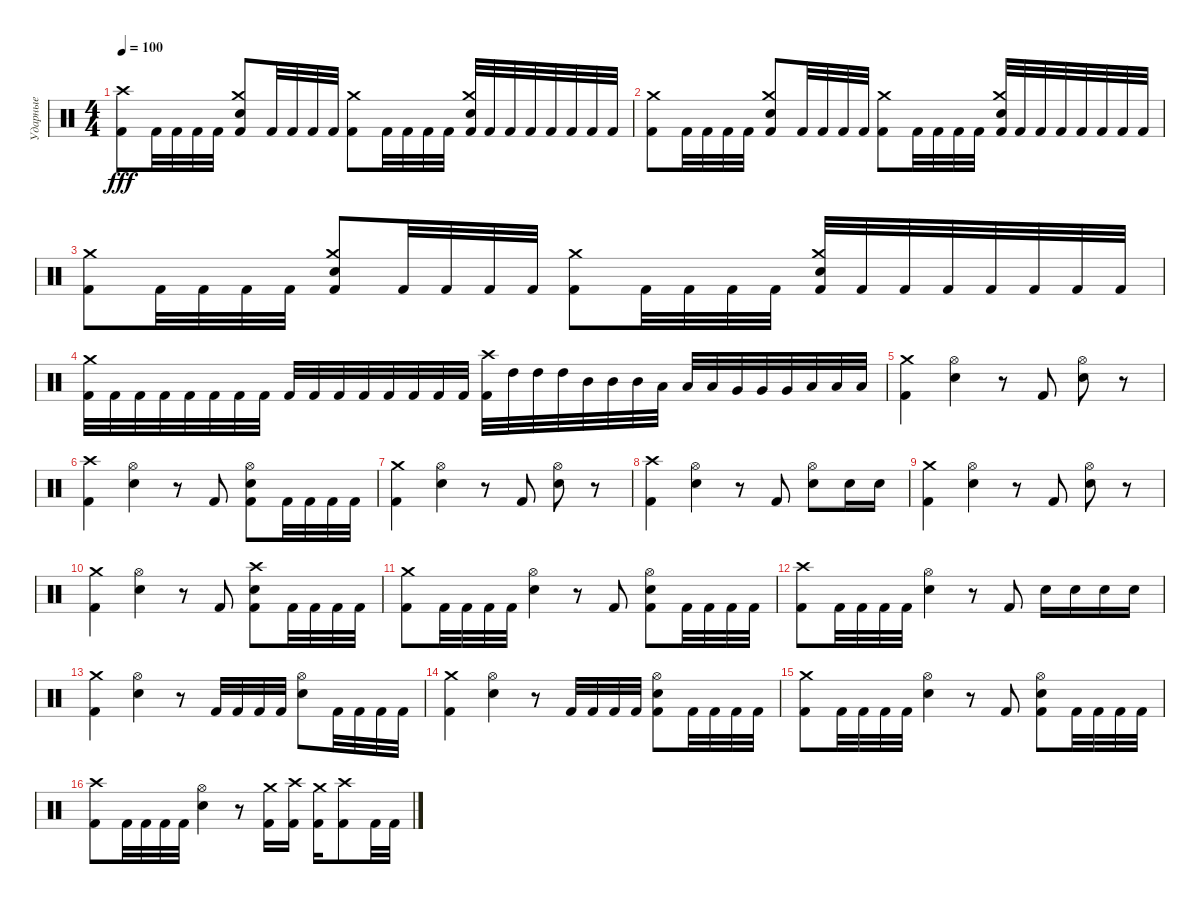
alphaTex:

\track ("Ударные" "Ударные") {instrument percussion}
\staff {score}
\articulation defaults
\ts (4 4)
\tempo 100
\clef neutral
\ks c
("Crash high (hit)" "Kick (hit) 2").8{dy fff} "Kick (hit) 2".32 "Kick (hit) 2".32 "Kick (hit) 2".32 "Kick (hit) 2".32 ("Crash medium (hit)" "Electric Snare (hit)" "Kick (hit) 2").8 "Kick (hit) 2".32 "Kick (hit) 2".32 "Kick (hit) 2".32 "Kick (hit) 2".32 ("Crash medium (hit)" "Kick (hit) 2").8 "Kick (hit) 2".32 "Kick (hit) 2".32 "Kick (hit) 2".32 "Kick (hit) 2".32 ("Crash medium (hit)" "Electric Snare (hit)" "Kick (hit) 2").32 "Kick (hit) 2".32 "Kick (hit) 2".32 "Kick (hit) 2".32 "Kick (hit) 2".32 "Kick (hit) 2".32 "Kick (hit) 2".32 "Kick (hit) 2".32 |
("Crash medium (hit)" "Kick (hit) 2").8 "Kick (hit) 2".32 "Kick (hit) 2".32 "Kick (hit) 2".32 "Kick (hit) 2".32 ("Crash medium (hit)" "Electric Snare (hit)" "Kick (hit) 2").8 "Kick (hit) 2".32 "Kick (hit) 2".32 "Kick (hit) 2".32 "Kick (hit) 2".32 ("Crash medium (hit)" "Kick (hit) 2").8 "Kick (hit) 2".32 "Kick (hit) 2".32 "Kick (hit) 2".32 "Kick (hit) 2".32 ("Crash medium (hit)" "Electric Snare (hit)" "Kick (hit) 2").32 "Kick (hit) 2".32 "Kick (hit) 2".32 "Kick (hit) 2".32 "Kick (hit) 2".32 "Kick (hit) 2".32 "Kick (hit) 2".32 "Kick (hit) 2".32 |
("Crash medium (hit)" "Kick (hit) 2").8 "Kick (hit) 2".32 "Kick (hit) 2".32 "Kick (hit) 2".32 "Kick (hit) 2".32 ("Crash medium (hit)" "Electric Snare (hit)" "Kick (hit) 2").8 "Kick (hit) 2".32 "Kick (hit) 2".32 "Kick (hit) 2".32 "Kick (hit) 2".32 ("Crash medium (hit)" "Kick (hit) 2").8 "Kick (hit) 2".32 "Kick (hit) 2".32 "Kick (hit) 2".32 "Kick (hit) 2".32 ("Crash medium (hit)" "Electric Snare (hit)" "Kick (hit) 2").32 "Kick (hit) 2".32 "Kick (hit) 2".32 "Kick (hit) 2".32 "Kick (hit) 2".32 "Kick (hit) 2".32 "Kick (hit) 2".32 "Kick (hit) 2".32 |
("Crash medium (hit)" "Kick (hit) 2").32 "Kick (hit) 2".32 "Kick (hit) 2".32 "Kick (hit) 2".32 "Kick (hit) 2".32 "Kick (hit) 2".32 "Kick (hit) 2".32 "Kick (hit) 2".32 "Kick (hit) 2".32 "Kick (hit) 2".32 "Kick (hit) 2".32 "Kick (hit) 2".32 "Kick (hit) 2".32 "Kick (hit) 2".32 "Kick (hit) 2".32 "Kick (hit) 2".32 ("Crash high (hit)" "Kick (hit) 2").32 "High Tom (hit)".32 "High Tom (hit)".32 "High Tom (hit)".32 "Mid Tom (hit)".32 "Mid Tom (hit)".32 "Mid Tom (hit)".32 "Low Tom (hit)".32 "Low Tom (hit)".32 "Low Tom (hit)".32 "Very Low Tom (hit)".32 "Very Low Tom (hit)".32 "Very Low Tom (hit)".32 "Low Floor Tom (hit)".32 "Low Floor Tom (hit)".32 "Low Floor Tom (hit)".32 |
("Crash medium (hit)" "Kick (hit) 2").4 ("Hi-Hat (open)" "Electric Snare (hit)").4 r.8 "Kick (hit) 2".8 ("Hi-Hat (open)" "Electric Snare (hit)").8 r.8 |
("Crash high (hit)" "Kick (hit) 2").4 ("Hi-Hat (open)" "Electric Snare (hit)").4 r.8 "Kick (hit) 2".8 ("Hi-Hat (open)" "Electric Snare (hit)" "Kick (hit) 2").8 "Kick (hit) 2".32 "Kick (hit) 2".32 "Kick (hit) 2".32 "Kick (hit) 2".32 |
("Crash medium (hit)" "Kick (hit) 2").4 ("Hi-Hat (open)" "Electric Snare (hit)").4 r.8 "Kick (hit) 2".8 ("Hi-Hat (open)" "Electric Snare (hit)").8 r.8 |
("Crash high (hit)" "Kick (hit) 2").4 ("Hi-Hat (open)" "Electric Snare (hit)").4 r.8 "Kick (hit) 2".8 ("Hi-Hat (open)" "Electric Snare (hit)").8 "Electric Snare (hit)".16 "Electric Snare (hit)".16 |
("Crash medium (hit)" "Kick (hit) 2").4 ("Hi-Hat (open)" "Electric Snare (hit)").4 r.8 "Kick (hit) 2".8 ("Hi-Hat (open)" "Electric Snare (hit)").8 r.8 |
("Crash medium (hit)" "Kick (hit) 2").4 ("Hi-Hat (open)" "Electric Snare (hit)").4 r.8 "Kick (hit) 2".8 ("Crash high (hit)" "Electric Snare (hit)" "Kick (hit) 2").8 "Kick (hit) 2".32 "Kick (hit) 2".32 "Kick (hit) 2".32 "Kick (hit) 2".32 |
("Crash medium (hit)" "Kick (hit) 2").8 "Kick (hit) 2".32 "Kick (hit) 2".32 "Kick (hit) 2".32 "Kick (hit) 2".32 ("Hi-Hat (open)" "Electric Snare (hit)").4 r.8 "Kick (hit) 2".8 ("Hi-Hat (open)" "Electric Snare (hit)" "Kick (hit) 2").8 "Kick (hit) 2".32 "Kick (hit) 2".32 "Kick (hit) 2".32 "Kick (hit) 2".32 |
("Crash high (hit)" "Kick (hit) 2").8 "Kick (hit) 2".32 "Kick (hit) 2".32 "Kick (hit) 2".32 "Kick (hit) 2".32 ("Hi-Hat (open)" "Electric Snare (hit)").4 r.8 "Kick (hit) 2".8 "Electric Snare (hit)".16 "Electric Snare (hit)".16 "Electric Snare (hit)".16 "Electric Snare (hit)".16 |
("Crash medium (hit)" "Kick (hit) 2").4 ("Hi-Hat (open)" "Electric Snare (hit)").4 r.8 "Kick (hit) 2".32 "Kick (hit) 2".32 "Kick (hit) 2".32 "Kick (hit) 2".32 ("Hi-Hat (open)" "Electric Snare (hit)").8 "Kick (hit) 2".32 "Kick (hit) 2".32 "Kick (hit) 2".32 "Kick (hit) 2".32 |
("Crash medium (hit)" "Kick (hit) 2").4 ("Hi-Hat (open)" "Electric Snare (hit)").4 r.8 "Kick (hit) 2".32 "Kick (hit) 2".32 "Kick (hit) 2".32 "Kick (hit) 2".32 ("Hi-Hat (open)" "Electric Snare (hit)" "Kick (hit) 2").8 "Kick (hit) 2".32 "Kick (hit) 2".32 "Kick (hit) 2".32 "Kick (hit) 2".32 |
("Crash medium (hit)" "Kick (hit) 2").8 "Kick (hit) 2".32 "Kick (hit) 2".32 "Kick (hit) 2".32 "Kick (hit) 2".32 ("Hi-Hat (open)" "Electric Snare (hit)").4 r.8 "Kick (hit) 2".8 ("Hi-Hat (open)" "Electric Snare (hit)" "Kick (hit) 2").8 "Kick (hit) 2".32 "Kick (hit) 2".32 "Kick (hit) 2".32 "Kick (hit) 2".32 |
("Crash high (hit)" "Kick (hit) 2").8 "Kick (hit) 2".32 "Kick (hit) 2".32 "Kick (hit) 2".32 "Kick (hit) 2".32 ("Hi-Hat (open)" "Electric Snare (hit)").4 r.8 ("Crash medium (hit)" "Kick (hit) 2").16 ("Crash high (hit)" "Kick (hit) 2").16 ("Crash medium (hit)" "Kick (hit) 2").16 ("Crash high (hit)" "Kick (hit) 2").8 "Kick (hit) 2".32 "Kick (hit) 2".32
